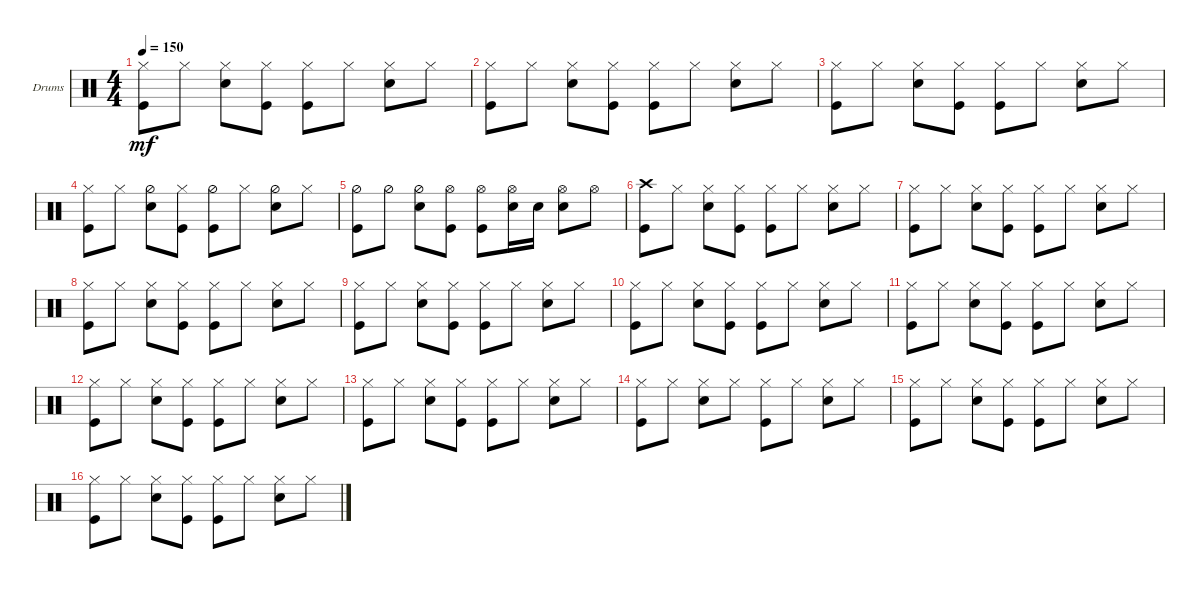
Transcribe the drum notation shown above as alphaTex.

\defaultSystemsLayout 4
\bracketExtendMode groupsimilarinstruments
\firstSystemTrackNameOrientation horizontal
\otherSystemsTrackNameOrientation horizontal
\track ("Drums" "Drums") {instrument percussion}
\staff {score}
\articulation defaults
\ts (4 4)
\tempo 150
\clef neutral
\ks c
("Kick (hit)" "Hi-Hat (closed)").8{dy mf} "Hi-Hat (closed)".8 ("Snare (hit) 2" "Hi-Hat (closed)").8 ("Kick (hit)" "Hi-Hat (closed)").8 ("Kick (hit)" "Hi-Hat (closed)").8 "Hi-Hat (closed)".8 ("Snare (hit) 2" "Hi-Hat (closed)").8 "Hi-Hat (closed)".8 |
("Kick (hit)" "Hi-Hat (closed)").8 "Hi-Hat (closed)".8 ("Snare (hit) 2" "Hi-Hat (closed)").8 ("Kick (hit)" "Hi-Hat (closed)").8 ("Kick (hit)" "Hi-Hat (closed)").8 "Hi-Hat (closed)".8 ("Snare (hit) 2" "Hi-Hat (closed)").8 "Hi-Hat (closed)".8 |
("Kick (hit)" "Hi-Hat (closed)").8 "Hi-Hat (closed)".8 ("Snare (hit) 2" "Hi-Hat (closed)").8 ("Kick (hit)" "Hi-Hat (closed)").8 ("Kick (hit)" "Hi-Hat (closed)").8 "Hi-Hat (closed)".8 ("Snare (hit) 2" "Hi-Hat (closed)").8 "Hi-Hat (closed)".8 |
("Kick (hit)" "Hi-Hat (closed)").8 "Hi-Hat (closed)".8 ("Snare (hit) 2" "Hi-Hat (half)").8 ("Kick (hit)" "Hi-Hat (closed)").8 ("Kick (hit)" "Hi-Hat (half)").8 "Hi-Hat (closed)".8 ("Snare (hit) 2" "Hi-Hat (half)").8 "Hi-Hat (closed)".8 |
("Hi-Hat (half)" "Kick (hit)").8 "Hi-Hat (half)".8 ("Hi-Hat (half)" "Snare (hit) 2").8 ("Hi-Hat (open)" "Kick (hit)").8 ("Hi-Hat (open)" "Kick (hit)").8 ("Hi-Hat (open)" "Snare (hit) 2").16 "Snare (hit) 2".16 ("Snare (hit) 2" "Hi-Hat (open)").8 "Hi-Hat (open)".8 |
("Kick (hit)" "Crash high (hit)").8 "Hi-Hat (closed)".8 ("Snare (hit) 2" "Hi-Hat (closed)").8 ("Kick (hit)" "Hi-Hat (closed)").8 ("Kick (hit)" "Hi-Hat (closed)").8 "Hi-Hat (closed)".8 ("Snare (hit) 2" "Hi-Hat (closed)").8 "Hi-Hat (closed)".8 |
("Kick (hit)" "Hi-Hat (closed)").8 "Hi-Hat (closed)".8 ("Snare (hit) 2" "Hi-Hat (closed)").8 ("Kick (hit)" "Hi-Hat (closed)").8 ("Kick (hit)" "Hi-Hat (closed)").8 "Hi-Hat (closed)".8 ("Snare (hit) 2" "Hi-Hat (closed)").8 "Hi-Hat (closed)".8 |
("Kick (hit)" "Hi-Hat (closed)").8 "Hi-Hat (closed)".8 ("Snare (hit) 2" "Hi-Hat (closed)").8 ("Kick (hit)" "Hi-Hat (closed)").8 ("Kick (hit)" "Hi-Hat (closed)").8 "Hi-Hat (closed)".8 ("Snare (hit) 2" "Hi-Hat (closed)").8 "Hi-Hat (closed)".8 |
("Kick (hit)" "Hi-Hat (closed)").8 "Hi-Hat (closed)".8 ("Snare (hit) 2" "Hi-Hat (closed)").8 ("Kick (hit)" "Hi-Hat (closed)").8 ("Kick (hit)" "Hi-Hat (closed)").8 "Hi-Hat (closed)".8 ("Snare (hit) 2" "Hi-Hat (closed)").8 "Hi-Hat (closed)".8 |
("Kick (hit)" "Hi-Hat (closed)").8 "Hi-Hat (closed)".8 ("Snare (hit) 2" "Hi-Hat (closed)").8 ("Kick (hit)" "Hi-Hat (closed)").8 ("Kick (hit)" "Hi-Hat (closed)").8 "Hi-Hat (closed)".8 ("Snare (hit) 2" "Hi-Hat (closed)").8 "Hi-Hat (closed)".8 |
("Kick (hit)" "Hi-Hat (closed)").8 "Hi-Hat (closed)".8 ("Snare (hit) 2" "Hi-Hat (closed)").8 ("Kick (hit)" "Hi-Hat (closed)").8 ("Kick (hit)" "Hi-Hat (closed)").8 "Hi-Hat (closed)".8 ("Snare (hit) 2" "Hi-Hat (closed)").8 "Hi-Hat (closed)".8 |
("Kick (hit)" "Hi-Hat (closed)").8 "Hi-Hat (closed)".8 ("Snare (hit) 2" "Hi-Hat (closed)").8 ("Kick (hit)" "Hi-Hat (closed)").8 ("Kick (hit)" "Hi-Hat (closed)").8 "Hi-Hat (closed)".8 ("Snare (hit) 2" "Hi-Hat (closed)").8 "Hi-Hat (closed)".8 |
("Kick (hit)" "Hi-Hat (closed)").8 "Hi-Hat (closed)".8 ("Snare (hit) 2" "Hi-Hat (closed)").8 ("Kick (hit)" "Hi-Hat (closed)").8 ("Kick (hit)" "Hi-Hat (closed)").8 "Hi-Hat (closed)".8 ("Snare (hit) 2" "Hi-Hat (closed)").8 "Hi-Hat (closed)".8 |
("Kick (hit)" "Hi-Hat (closed)").8 "Hi-Hat (closed)".8 ("Snare (hit) 2" "Hi-Hat (closed)").8 "Hi-Hat (closed)".8 ("Kick (hit)" "Hi-Hat (closed)").8 "Hi-Hat (closed)".8 ("Snare (hit) 2" "Hi-Hat (closed)").8 "Hi-Hat (closed)".8 |
("Kick (hit)" "Hi-Hat (closed)").8 "Hi-Hat (closed)".8 ("Snare (hit) 2" "Hi-Hat (closed)").8 ("Hi-Hat (closed)" "Kick (hit)").8 ("Kick (hit)" "Hi-Hat (closed)").8 "Hi-Hat (closed)".8 ("Snare (hit) 2" "Hi-Hat (closed)").8 "Hi-Hat (closed)".8 |
("Kick (hit)" "Hi-Hat (closed)").8 "Hi-Hat (closed)".8 ("Snare (hit) 2" "Hi-Hat (closed)").8 ("Kick (hit)" "Hi-Hat (closed)").8 ("Kick (hit)" "Hi-Hat (closed)").8 "Hi-Hat (closed)".8 ("Snare (hit) 2" "Hi-Hat (closed)").8 "Hi-Hat (closed)".8
